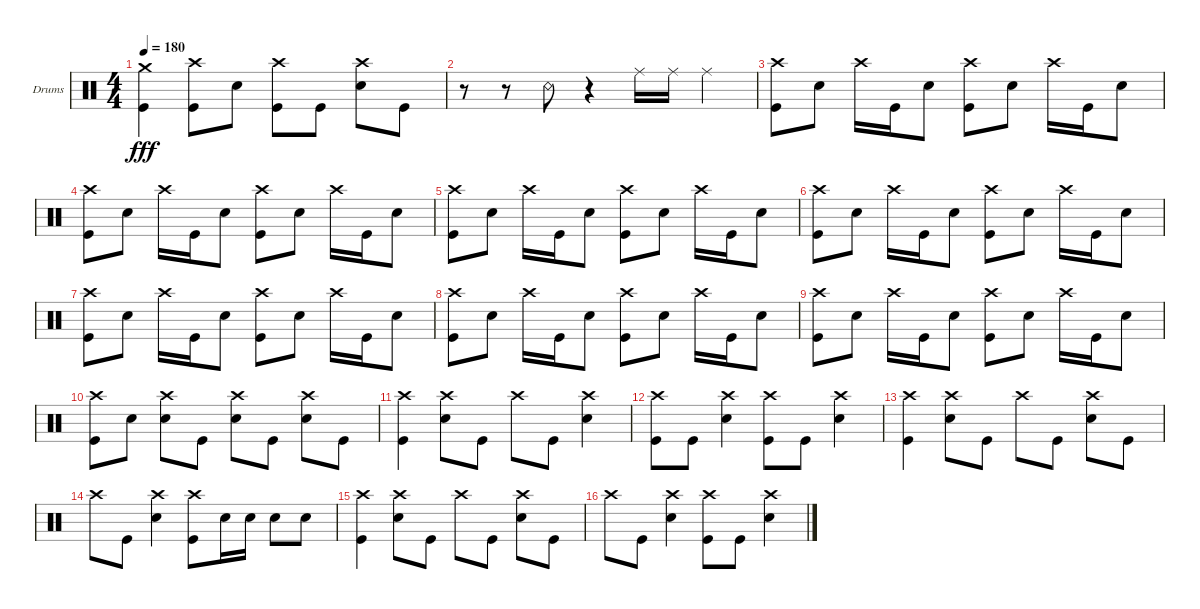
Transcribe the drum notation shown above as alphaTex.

\defaultSystemsLayout 4
\bracketExtendMode groupsimilarinstruments
\firstSystemTrackNameOrientation horizontal
\otherSystemsTrackNameOrientation horizontal
\track ("Drumkit" "Drums") {instrument percussion}
\staff {score}
\articulation defaults
\ts (4 4)
\tempo 180
\clef neutral
\ks c
("Kick (hit)" "Crash medium (hit)").4{dy fff} ("Kick (hit)" "Crash high (hit)").8 "Snare (hit) 2".8 ("Kick (hit)" "Crash high (hit)").8 "Kick (hit)".8 ("Snare (hit) 2" "Crash high (hit)").8 "Kick (hit)".8 |
r.8 r.8 "Snare (rim shot)".8 r.4 "Ride (middle)".16 "Ride (middle)".16 "Ride (middle)".4 |
("Kick (hit)" "Crash high (hit)").8 "Snare (hit) 2".8 "Crash high (hit)".16 "Kick (hit)".16 "Snare (hit) 2".8 ("Kick (hit)" "Crash high (hit)").8 "Snare (hit) 2".8 "Crash high (hit)".16 "Kick (hit)".16 "Snare (hit) 2".8 |
("Kick (hit)" "Crash high (hit)").8 "Snare (hit) 2".8 "Crash high (hit)".16 "Kick (hit)".16 "Snare (hit) 2".8 ("Kick (hit)" "Crash high (hit)").8 "Snare (hit) 2".8 "Crash high (hit)".16 "Kick (hit)".16 "Snare (hit) 2".8 |
("Kick (hit)" "Crash high (hit)").8 "Snare (hit) 2".8 "Crash high (hit)".16 "Kick (hit)".16 "Snare (hit) 2".8 ("Kick (hit)" "Crash high (hit)").8 "Snare (hit) 2".8 "Crash high (hit)".16 "Kick (hit)".16 "Snare (hit) 2".8 |
("Kick (hit)" "Crash high (hit)").8 "Snare (hit) 2".8 "Crash high (hit)".16 "Kick (hit)".16 "Snare (hit) 2".8 ("Kick (hit)" "Crash high (hit)").8 "Snare (hit) 2".8 "Crash high (hit)".16 "Kick (hit)".16 "Snare (hit) 2".8 |
("Kick (hit)" "Crash high (hit)").8 "Snare (hit) 2".8 "Crash high (hit)".16 "Kick (hit)".16 "Snare (hit) 2".8 ("Kick (hit)" "Crash high (hit)").8 "Snare (hit) 2".8 "Crash high (hit)".16 "Kick (hit)".16 "Snare (hit) 2".8 |
("Kick (hit)" "Crash high (hit)").8 "Snare (hit) 2".8 "Crash high (hit)".16 "Kick (hit)".16 "Snare (hit) 2".8 ("Kick (hit)" "Crash high (hit)").8 "Snare (hit) 2".8 "Crash high (hit)".16 "Kick (hit)".16 "Snare (hit) 2".8 |
("Kick (hit)" "Crash high (hit)").8 "Snare (hit) 2".8 "Crash high (hit)".16 "Kick (hit)".16 "Snare (hit) 2".8 ("Kick (hit)" "Crash high (hit)").8 "Snare (hit) 2".8 "Crash high (hit)".16 "Kick (hit)".16 "Snare (hit) 2".8 |
("Kick (hit)" "Crash high (hit)").8 "Snare (hit) 2".8 ("Snare (hit) 2" "Crash high (hit)").8 "Kick (hit)".8 ("Snare (hit) 2" "Crash high (hit)").8 "Kick (hit)".8 ("Snare (hit) 2" "Crash high (hit)").8 "Kick (hit)".8 |
("Kick (hit)" "Crash high (hit)").4 ("Snare (hit) 2" "Crash high (hit)").8 "Kick (hit)".8 "Crash high (hit)".8 "Kick (hit)".8 ("Snare (hit) 2" "Crash high (hit)").4 |
("Kick (hit)" "Crash high (hit)").8 "Kick (hit)".8 ("Snare (hit) 2" "Crash high (hit)").4 ("Kick (hit)" "Crash high (hit)").8 "Kick (hit)".8 ("Snare (hit) 2" "Crash high (hit)").4 |
("Kick (hit)" "Crash high (hit)").4 ("Snare (hit) 2" "Crash high (hit)").8 "Kick (hit)".8 "Crash high (hit)".8 "Kick (hit)".8 ("Snare (hit) 2" "Crash high (hit)").8 "Kick (hit)".8 |
"Crash high (hit)".8 "Kick (hit)".8 ("Snare (hit) 2" "Crash high (hit)").4 ("Kick (hit)" "Crash high (hit)").8 "Snare (hit) 2".16 "Snare (hit) 2".16 "Snare (hit) 2".8 "Snare (hit) 2".8 |
("Kick (hit)" "Crash high (hit)").4 ("Snare (hit) 2" "Crash high (hit)").8 "Kick (hit)".8 "Crash high (hit)".8 "Kick (hit)".8 ("Snare (hit) 2" "Crash high (hit)").8 "Kick (hit)".8 |
"Crash high (hit)".8 "Kick (hit)".8 ("Snare (hit) 2" "Crash high (hit)").4 ("Kick (hit)" "Crash high (hit)").8 "Kick (hit)".8 ("Snare (hit) 2" "Crash high (hit)").4
